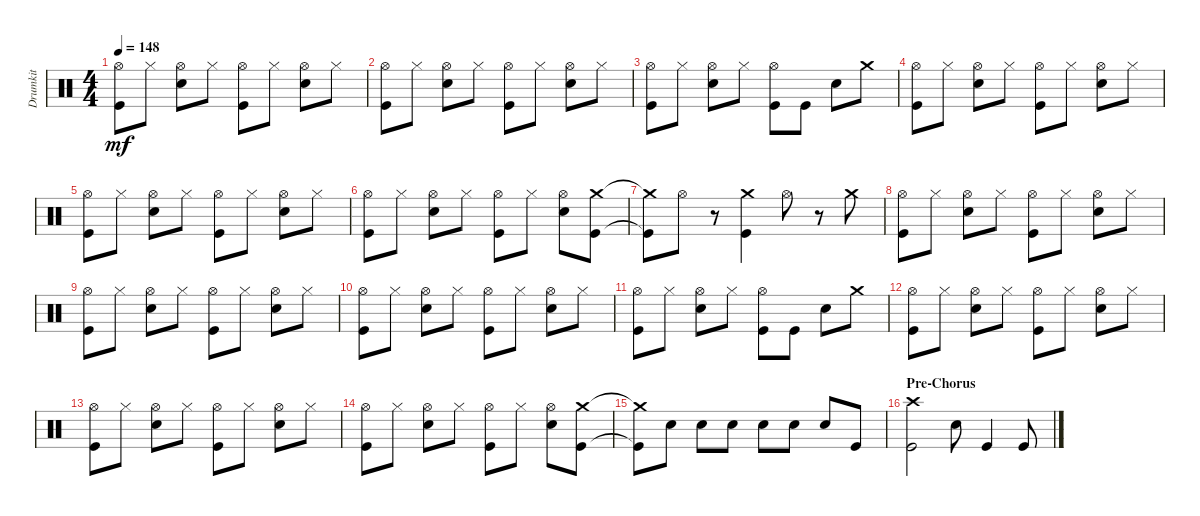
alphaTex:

\track ("Drumkit" "Drumkit") {instrument percussion}
\staff {score}
\articulation defaults
\ts (4 4)
\tempo 148
\clef neutral
\ks c
("Kick (hit)" "Hi-Hat (open)").8{dy mf} "Hi-Hat (closed)".8 ("Snare (hit) 2" "Hi-Hat (open)").8 "Hi-Hat (closed)".8 ("Kick (hit)" "Hi-Hat (open)").8 "Hi-Hat (closed)".8 ("Snare (hit) 2" "Hi-Hat (open)").8 "Hi-Hat (closed)".8 |
("Kick (hit)" "Hi-Hat (open)").8 "Hi-Hat (closed)".8 ("Snare (hit) 2" "Hi-Hat (open)").8 "Hi-Hat (closed)".8 ("Kick (hit)" "Hi-Hat (open)").8 "Hi-Hat (closed)".8 ("Snare (hit) 2" "Hi-Hat (open)").8 "Hi-Hat (closed)".8 |
("Kick (hit)" "Hi-Hat (open)").8 "Hi-Hat (closed)".8 ("Snare (hit) 2" "Hi-Hat (open)").8 "Hi-Hat (closed)".8 ("Kick (hit)" "Hi-Hat (open)").8 "Kick (hit)".8 "Snare (hit) 2".8 "Crash medium (hit)".8 |
("Kick (hit)" "Hi-Hat (open)").8 "Hi-Hat (closed)".8 ("Snare (hit) 2" "Hi-Hat (open)").8 "Hi-Hat (closed)".8 ("Kick (hit)" "Hi-Hat (open)").8 "Hi-Hat (closed)".8 ("Snare (hit) 2" "Hi-Hat (open)").8 "Hi-Hat (closed)".8 |
("Kick (hit)" "Hi-Hat (open)").8 "Hi-Hat (closed)".8 ("Snare (hit) 2" "Hi-Hat (open)").8 "Hi-Hat (closed)".8 ("Kick (hit)" "Hi-Hat (open)").8 "Hi-Hat (closed)".8 ("Snare (hit) 2" "Hi-Hat (open)").8 "Hi-Hat (closed)".8 |
("Kick (hit)" "Hi-Hat (open)").8 "Hi-Hat (closed)".8 ("Snare (hit) 2" "Hi-Hat (open)").8 "Hi-Hat (closed)".8 ("Kick (hit)" "Hi-Hat (open)").8 "Hi-Hat (closed)".8 ("Snare (hit) 2" "Hi-Hat (open)").8 ("Crash medium (hit)" "Kick (hit)").8 |
("Crash medium (hit)"{t} "Kick (hit)"{t}).8 "Hi-Hat (open)".8 r.8 ("Crash medium (hit)" "Kick (hit)").4 "Hi-Hat (open)".8 r.8 "Crash medium (hit)".8 |
("Kick (hit)" "Hi-Hat (open)").8 "Hi-Hat (closed)".8 ("Snare (hit) 2" "Hi-Hat (open)").8 "Hi-Hat (closed)".8 ("Kick (hit)" "Hi-Hat (open)").8 "Hi-Hat (closed)".8 ("Snare (hit) 2" "Hi-Hat (open)").8 "Hi-Hat (closed)".8 |
("Kick (hit)" "Hi-Hat (open)").8 "Hi-Hat (closed)".8 ("Snare (hit) 2" "Hi-Hat (open)").8 "Hi-Hat (closed)".8 ("Kick (hit)" "Hi-Hat (open)").8 "Hi-Hat (closed)".8 ("Snare (hit) 2" "Hi-Hat (open)").8 "Hi-Hat (closed)".8 |
("Kick (hit)" "Hi-Hat (open)").8 "Hi-Hat (closed)".8 ("Snare (hit) 2" "Hi-Hat (open)").8 "Hi-Hat (closed)".8 ("Kick (hit)" "Hi-Hat (open)").8 "Hi-Hat (closed)".8 ("Snare (hit) 2" "Hi-Hat (open)").8 "Hi-Hat (closed)".8 |
("Kick (hit)" "Hi-Hat (open)").8 "Hi-Hat (closed)".8 ("Snare (hit) 2" "Hi-Hat (open)").8 "Hi-Hat (closed)".8 ("Kick (hit)" "Hi-Hat (open)").8 "Kick (hit)".8 "Snare (hit) 2".8 "Crash medium (hit)".8 |
("Kick (hit)" "Hi-Hat (open)").8 "Hi-Hat (closed)".8 ("Snare (hit) 2" "Hi-Hat (open)").8 "Hi-Hat (closed)".8 ("Kick (hit)" "Hi-Hat (open)").8 "Hi-Hat (closed)".8 ("Snare (hit) 2" "Hi-Hat (open)").8 "Hi-Hat (closed)".8 |
("Kick (hit)" "Hi-Hat (open)").8 "Hi-Hat (closed)".8 ("Snare (hit) 2" "Hi-Hat (open)").8 "Hi-Hat (closed)".8 ("Kick (hit)" "Hi-Hat (open)").8 "Hi-Hat (closed)".8 ("Snare (hit) 2" "Hi-Hat (open)").8 "Hi-Hat (closed)".8 |
("Kick (hit)" "Hi-Hat (open)").8 "Hi-Hat (closed)".8 ("Snare (hit) 2" "Hi-Hat (open)").8 "Hi-Hat (closed)".8 ("Kick (hit)" "Hi-Hat (open)").8 "Hi-Hat (closed)".8 ("Snare (hit) 2" "Hi-Hat (open)").8 ("Crash medium (hit)" "Kick (hit)").8 |
("Crash medium (hit)"{t} "Kick (hit)"{t}).8 "Snare (hit) 2".8 "Snare (hit) 2".8 "Snare (hit) 2".8 "Snare (hit) 2".8 "Snare (hit) 2".8 "Snare (hit) 2".8 "Kick (hit)".8 |
\section ("" "Pre-Chorus")
("Kick (hit)" "Crash high (hit)").2 "Snare (hit) 2".8 "Kick (hit)".4 "Kick (hit)".8
